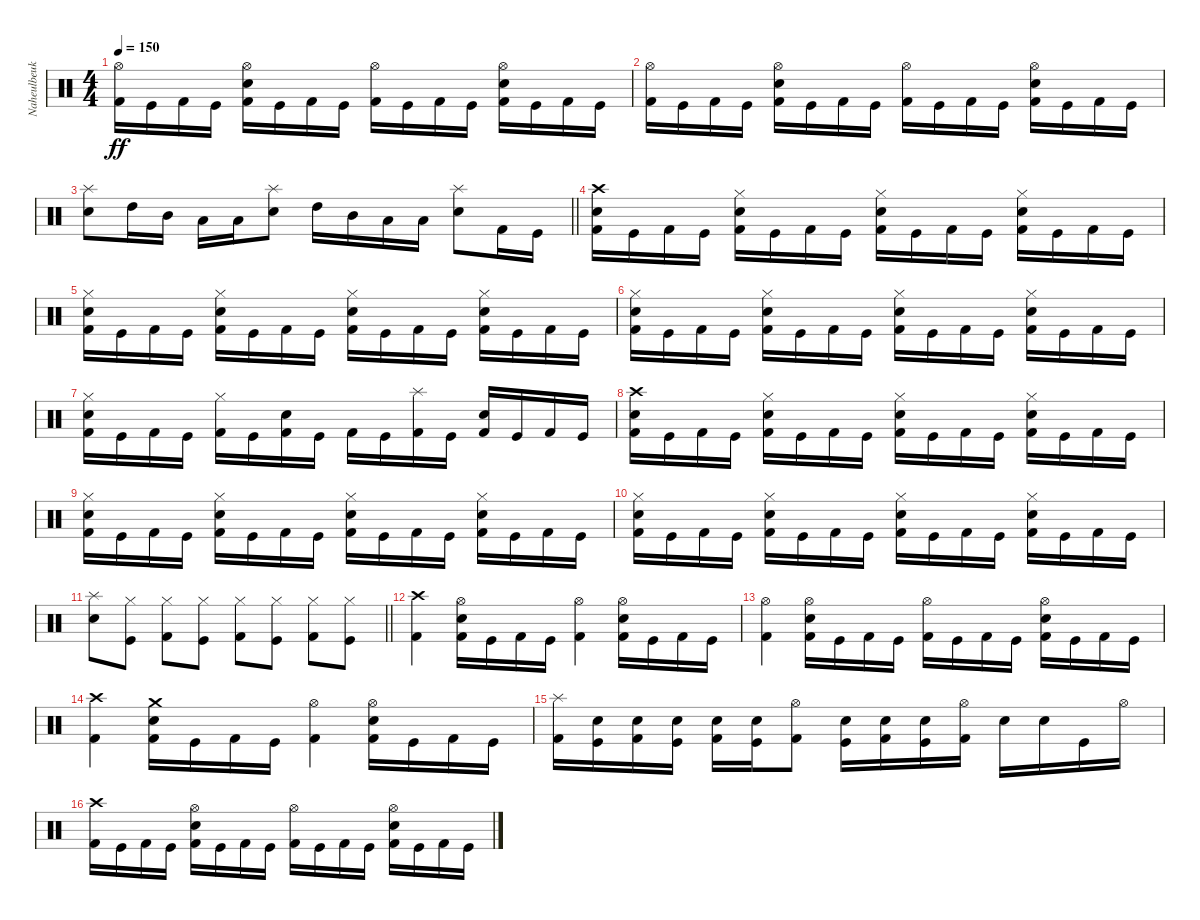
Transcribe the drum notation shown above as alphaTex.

\track ("Naheulbeuk" "Naheulbeuk") {instrument percussion}
\staff {score}
\articulation defaults
\ts (4 4)
\tempo 150
\clef neutral
\ks c
("Hi-Hat (open)" "Kick (hit) 2").16{dy ff} "Kick (hit)".16 "Kick (hit) 2".16 "Kick (hit)".16 ("Hi-Hat (open)" "Snare (hit) 2" "Kick (hit) 2").16 "Kick (hit)".16 "Kick (hit) 2".16 "Kick (hit)".16 ("Hi-Hat (open)" "Kick (hit) 2").16 "Kick (hit)".16 "Kick (hit) 2".16 "Kick (hit)".16 ("Hi-Hat (open)" "Snare (hit) 2" "Kick (hit) 2").16 "Kick (hit)".16 "Kick (hit) 2".16 "Kick (hit)".16 |
("Hi-Hat (open)" "Kick (hit) 2").16 "Kick (hit)".16 "Kick (hit) 2".16 "Kick (hit)".16 ("Hi-Hat (open)" "Snare (hit) 2" "Kick (hit) 2").16 "Kick (hit)".16 "Kick (hit) 2".16 "Kick (hit)".16 ("Hi-Hat (open)" "Kick (hit) 2").16 "Kick (hit)".16 "Kick (hit) 2".16 "Kick (hit)".16 ("Hi-Hat (open)" "Snare (hit) 2" "Kick (hit) 2").16 "Kick (hit)".16 "Kick (hit) 2".16 "Kick (hit)".16 |
\barLineRight lightlight
("Splash (hit)" "Snare (hit) 2").8 "High Tom (hit)".16 "Mid Tom (hit)".16 "Low Tom (hit)".16 "Low Tom (hit)".16 ("Splash (hit)" "Snare (hit) 2").8 "High Tom (hit)".16 "Mid Tom (hit)".16 "Low Tom (hit)".16 "Low Tom (hit)".16 ("Splash (hit)" "Snare (hit) 2").8 "Kick (hit) 2".16 "Kick (hit)".16 |
\section ("" "")
("Crash high (hit)" "Snare (hit) 2" "Kick (hit) 2").16 "Kick (hit)".16 "Kick (hit) 2".16 "Kick (hit)".16 ("Hi-Hat (closed)" "Snare (hit) 2" "Kick (hit) 2").16 "Kick (hit)".16 "Kick (hit) 2".16 "Kick (hit)".16 ("Hi-Hat (closed)" "Snare (hit) 2" "Kick (hit) 2").16 "Kick (hit)".16 "Kick (hit) 2".16 "Kick (hit)".16 ("Hi-Hat (closed)" "Snare (hit) 2" "Kick (hit) 2").16 "Kick (hit)".16 "Kick (hit) 2".16 "Kick (hit)".16 |
("Hi-Hat (closed)" "Snare (hit) 2" "Kick (hit) 2").16 "Kick (hit)".16 "Kick (hit) 2".16 "Kick (hit)".16 ("Hi-Hat (closed)" "Snare (hit) 2" "Kick (hit) 2").16 "Kick (hit)".16 "Kick (hit) 2".16 "Kick (hit)".16 ("Hi-Hat (closed)" "Snare (hit) 2" "Kick (hit) 2").16 "Kick (hit)".16 "Kick (hit) 2".16 "Kick (hit)".16 ("Hi-Hat (closed)" "Snare (hit) 2" "Kick (hit) 2").16 "Kick (hit)".16 "Kick (hit) 2".16 "Kick (hit)".16 |
("Hi-Hat (closed)" "Snare (hit) 2" "Kick (hit) 2").16 "Kick (hit)".16 "Kick (hit) 2".16 "Kick (hit)".16 ("Hi-Hat (closed)" "Snare (hit) 2" "Kick (hit) 2").16 "Kick (hit)".16 "Kick (hit) 2".16 "Kick (hit)".16 ("Hi-Hat (closed)" "Snare (hit) 2" "Kick (hit) 2").16 "Kick (hit)".16 "Kick (hit) 2".16 "Kick (hit)".16 ("Hi-Hat (closed)" "Snare (hit) 2" "Kick (hit) 2").16 "Kick (hit)".16 "Kick (hit) 2".16 "Kick (hit)".16 |
("Hi-Hat (closed)" "Snare (hit) 2" "Kick (hit) 2").16 "Kick (hit)".16 "Kick (hit) 2".16 "Kick (hit)".16 ("Hi-Hat (closed)" "Kick (hit) 2").16 "Kick (hit)".16 ("Snare (hit) 2" "Kick (hit) 2").16 "Kick (hit)".16 "Kick (hit) 2".16 "Kick (hit)".16 ("Splash (hit)" "Kick (hit) 2").16 "Kick (hit)".16 ("Snare (hit) 2" "Kick (hit) 2").16 "Kick (hit)".16 "Kick (hit) 2".16 "Kick (hit)".16 |
("Crash high (hit)" "Snare (hit) 2" "Kick (hit) 2").16 "Kick (hit)".16 "Kick (hit) 2".16 "Kick (hit)".16 ("Hi-Hat (closed)" "Snare (hit) 2" "Kick (hit) 2").16 "Kick (hit)".16 "Kick (hit) 2".16 "Kick (hit)".16 ("Hi-Hat (closed)" "Snare (hit) 2" "Kick (hit) 2").16 "Kick (hit)".16 "Kick (hit) 2".16 "Kick (hit)".16 ("Hi-Hat (closed)" "Snare (hit) 2" "Kick (hit) 2").16 "Kick (hit)".16 "Kick (hit) 2".16 "Kick (hit)".16 |
("Hi-Hat (closed)" "Snare (hit) 2" "Kick (hit) 2").16 "Kick (hit)".16 "Kick (hit) 2".16 "Kick (hit)".16 ("Hi-Hat (closed)" "Snare (hit) 2" "Kick (hit) 2").16 "Kick (hit)".16 "Kick (hit) 2".16 "Kick (hit)".16 ("Hi-Hat (closed)" "Snare (hit) 2" "Kick (hit) 2").16 "Kick (hit)".16 "Kick (hit) 2".16 "Kick (hit)".16 ("Hi-Hat (closed)" "Snare (hit) 2" "Kick (hit) 2").16 "Kick (hit)".16 "Kick (hit) 2".16 "Kick (hit)".16 |
("Hi-Hat (closed)" "Snare (hit) 2" "Kick (hit) 2").16 "Kick (hit)".16 "Kick (hit) 2".16 "Kick (hit)".16 ("Hi-Hat (closed)" "Snare (hit) 2" "Kick (hit) 2").16 "Kick (hit)".16 "Kick (hit) 2".16 "Kick (hit)".16 ("Hi-Hat (closed)" "Snare (hit) 2" "Kick (hit) 2").16 "Kick (hit)".16 "Kick (hit) 2".16 "Kick (hit)".16 ("Hi-Hat (closed)" "Snare (hit) 2" "Kick (hit) 2").16 "Kick (hit)".16 "Kick (hit) 2".16 "Kick (hit)".16 |
\barLineRight lightlight
("Splash (hit)" "Snare (hit) 2").8 ("Hi-Hat (closed)" "Kick (hit)").8 ("Hi-Hat (closed)" "Kick (hit) 2").8 ("Hi-Hat (closed)" "Kick (hit)").8 ("Hi-Hat (closed)" "Kick (hit) 2").8 ("Hi-Hat (closed)" "Kick (hit)").8 ("Hi-Hat (closed)" "Kick (hit) 2").8 ("Hi-Hat (closed)" "Kick (hit)").8 |
\section ("" "")
("Crash high (hit)" "Kick (hit) 2").4 ("Hi-Hat (open)" "Snare (hit) 2" "Kick (hit) 2").16 "Kick (hit)".16 "Kick (hit) 2".16 "Kick (hit)".16 ("Hi-Hat (open)" "Kick (hit) 2").4 ("Hi-Hat (open)" "Snare (hit) 2" "Kick (hit) 2").16 "Kick (hit)".16 "Kick (hit) 2".16 "Kick (hit)".16 |
("Hi-Hat (open)" "Kick (hit) 2").4 ("Hi-Hat (open)" "Snare (hit) 2" "Kick (hit) 2").16 "Kick (hit)".16 "Kick (hit) 2".16 "Kick (hit)".16 ("Hi-Hat (open)" "Kick (hit) 2").16 "Kick (hit)".16 "Kick (hit) 2".16 "Kick (hit)".16 ("Hi-Hat (open)" "Snare (hit) 2" "Kick (hit) 2").16 "Kick (hit)".16 "Kick (hit) 2".16 "Kick (hit)".16 |
("Crash high (hit)" "Kick (hit) 2").4 ("Crash medium (hit)" "Snare (hit) 2" "Kick (hit) 2").16 "Kick (hit)".16 "Kick (hit) 2".16 "Kick (hit)".16 ("Hi-Hat (open)" "Kick (hit) 2").4 ("Hi-Hat (open)" "Snare (hit) 2" "Kick (hit) 2").16 "Kick (hit)".16 "Kick (hit) 2".16 "Kick (hit)".16 |
("Splash (hit)" "Kick (hit) 2").16 ("Snare (hit) 2" "Kick (hit)").16 ("Snare (hit) 2" "Kick (hit) 2").16 ("Snare (hit) 2" "Kick (hit)").16 ("Snare (hit) 2" "Kick (hit) 2").16 ("Snare (hit) 2" "Kick (hit)").16 ("Hi-Hat (open)" "Kick (hit) 2").8 ("Snare (hit) 2" "Kick (hit)").16 ("Snare (hit) 2" "Kick (hit) 2").16 ("Snare (hit) 2" "Kick (hit)").16 ("Hi-Hat (open)" "Kick (hit) 2").16 "Snare (hit) 2".16 "Snare (hit) 2".16 "Kick (hit)".16 "Hi-Hat (open)".16 |
("Crash high (hit)" "Kick (hit) 2").16 "Kick (hit)".16 "Kick (hit) 2".16 "Kick (hit)".16 ("Hi-Hat (open)" "Snare (hit) 2" "Kick (hit) 2").16 "Kick (hit)".16 "Kick (hit) 2".16 "Kick (hit)".16 ("Hi-Hat (open)" "Kick (hit) 2").16 "Kick (hit)".16 "Kick (hit) 2".16 "Kick (hit)".16 ("Hi-Hat (open)" "Snare (hit) 2" "Kick (hit) 2").16 "Kick (hit)".16 "Kick (hit) 2".16 "Kick (hit)".16
